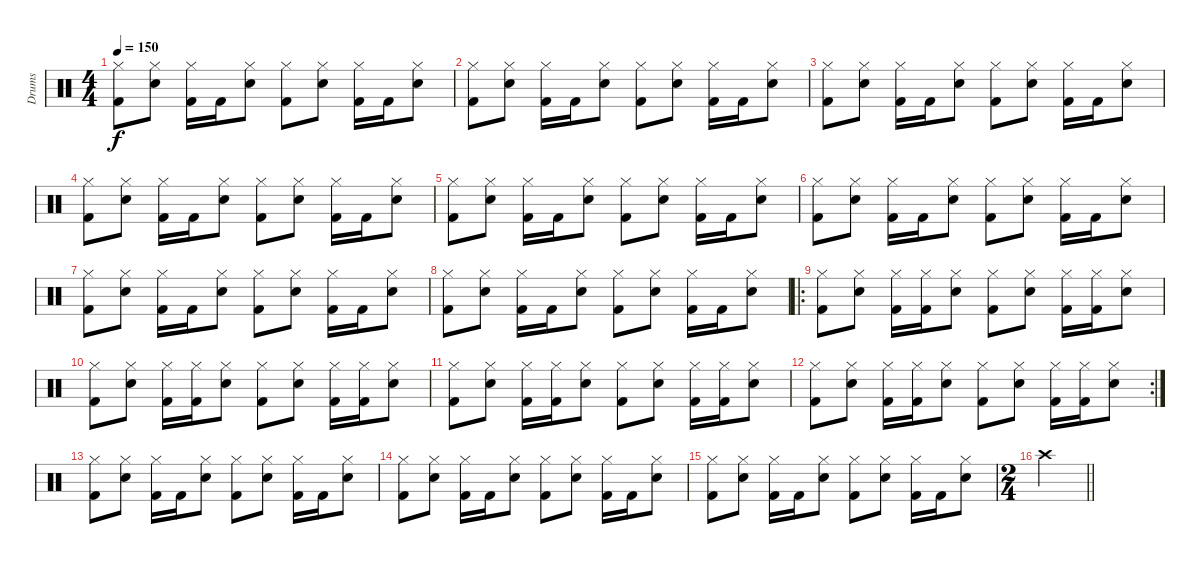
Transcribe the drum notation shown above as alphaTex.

\track ("Drums" "Drums") {instrument percussion}
\staff {score}
\articulation defaults
\ts (4 4)
\tempo 150
\clef neutral
\ks c
("Hi-Hat (closed)" "Kick (hit) 2").8{dy f} ("Hi-Hat (closed)" "Snare (hit) 2").8 ("Hi-Hat (closed)" "Kick (hit) 2").16 "Kick (hit) 2".16 ("Hi-Hat (closed)" "Snare (hit) 2").8 ("Hi-Hat (closed)" "Kick (hit) 2").8 ("Hi-Hat (closed)" "Snare (hit) 2").8 ("Hi-Hat (closed)" "Kick (hit) 2").16 "Kick (hit) 2".16 ("Hi-Hat (closed)" "Snare (hit) 2").8 |
("Hi-Hat (closed)" "Kick (hit) 2").8 ("Hi-Hat (closed)" "Snare (hit) 2").8 ("Hi-Hat (closed)" "Kick (hit) 2").16 "Kick (hit) 2".16 ("Hi-Hat (closed)" "Snare (hit) 2").8 ("Hi-Hat (closed)" "Kick (hit) 2").8 ("Hi-Hat (closed)" "Snare (hit) 2").8 ("Hi-Hat (closed)" "Kick (hit) 2").16 "Kick (hit) 2".16 ("Hi-Hat (closed)" "Snare (hit) 2").8 |
("Hi-Hat (closed)" "Kick (hit) 2").8 ("Hi-Hat (closed)" "Snare (hit) 2").8 ("Hi-Hat (closed)" "Kick (hit) 2").16 "Kick (hit) 2".16 ("Hi-Hat (closed)" "Snare (hit) 2").8 ("Hi-Hat (closed)" "Kick (hit) 2").8 ("Hi-Hat (closed)" "Snare (hit) 2").8 ("Hi-Hat (closed)" "Kick (hit) 2").16 "Kick (hit) 2".16 ("Hi-Hat (closed)" "Snare (hit) 2").8 |
("Hi-Hat (closed)" "Kick (hit) 2").8 ("Hi-Hat (closed)" "Snare (hit) 2").8 ("Hi-Hat (closed)" "Kick (hit) 2").16 "Kick (hit) 2".16 ("Hi-Hat (closed)" "Snare (hit) 2").8 ("Hi-Hat (closed)" "Kick (hit) 2").8 ("Hi-Hat (closed)" "Snare (hit) 2").8 ("Hi-Hat (closed)" "Kick (hit) 2").16 "Kick (hit) 2".16 ("Hi-Hat (closed)" "Snare (hit) 2").8 |
("Hi-Hat (closed)" "Kick (hit) 2").8 ("Hi-Hat (closed)" "Snare (hit) 2").8 ("Hi-Hat (closed)" "Kick (hit) 2").16 "Kick (hit) 2".16 ("Hi-Hat (closed)" "Snare (hit) 2").8 ("Hi-Hat (closed)" "Kick (hit) 2").8 ("Hi-Hat (closed)" "Snare (hit) 2").8 ("Hi-Hat (closed)" "Kick (hit) 2").16 "Kick (hit) 2".16 ("Hi-Hat (closed)" "Snare (hit) 2").8 |
("Hi-Hat (closed)" "Kick (hit) 2").8 ("Hi-Hat (closed)" "Snare (hit) 2").8 ("Hi-Hat (closed)" "Kick (hit) 2").16 "Kick (hit) 2".16 ("Hi-Hat (closed)" "Snare (hit) 2").8 ("Hi-Hat (closed)" "Kick (hit) 2").8 ("Hi-Hat (closed)" "Snare (hit) 2").8 ("Hi-Hat (closed)" "Kick (hit) 2").16 "Kick (hit) 2".16 ("Hi-Hat (closed)" "Snare (hit) 2").8 |
("Hi-Hat (closed)" "Kick (hit) 2").8 ("Hi-Hat (closed)" "Snare (hit) 2").8 ("Hi-Hat (closed)" "Kick (hit) 2").16 "Kick (hit) 2".16 ("Hi-Hat (closed)" "Snare (hit) 2").8 ("Hi-Hat (closed)" "Kick (hit) 2").8 ("Hi-Hat (closed)" "Snare (hit) 2").8 ("Hi-Hat (closed)" "Kick (hit) 2").16 "Kick (hit) 2".16 ("Hi-Hat (closed)" "Snare (hit) 2").8 |
("Hi-Hat (closed)" "Kick (hit) 2").8 ("Hi-Hat (closed)" "Snare (hit) 2").8 ("Hi-Hat (closed)" "Kick (hit) 2").16 "Kick (hit) 2".16 ("Hi-Hat (closed)" "Snare (hit) 2").8 ("Hi-Hat (closed)" "Kick (hit) 2").8 ("Hi-Hat (closed)" "Snare (hit) 2").8 ("Hi-Hat (closed)" "Kick (hit) 2").16 "Kick (hit) 2".16 ("Hi-Hat (closed)" "Snare (hit) 2").8 |
\ro
("Hi-Hat (closed)" "Kick (hit) 2").8 ("Hi-Hat (closed)" "Snare (hit) 2").8 ("Hi-Hat (closed)" "Kick (hit) 2").16 ("Hi-Hat (closed)" "Kick (hit) 2").16 ("Hi-Hat (closed)" "Snare (hit) 2").8 ("Hi-Hat (closed)" "Kick (hit) 2").8 ("Hi-Hat (closed)" "Snare (hit) 2").8 ("Hi-Hat (closed)" "Kick (hit) 2").16 ("Hi-Hat (closed)" "Kick (hit) 2").16 ("Hi-Hat (closed)" "Snare (hit) 2").8 |
("Hi-Hat (closed)" "Kick (hit) 2").8 ("Hi-Hat (closed)" "Snare (hit) 2").8 ("Hi-Hat (closed)" "Kick (hit) 2").16 ("Hi-Hat (closed)" "Kick (hit) 2").16 ("Hi-Hat (closed)" "Snare (hit) 2").8 ("Hi-Hat (closed)" "Kick (hit) 2").8 ("Hi-Hat (closed)" "Snare (hit) 2").8 ("Hi-Hat (closed)" "Kick (hit) 2").16 ("Hi-Hat (closed)" "Kick (hit) 2").16 ("Hi-Hat (closed)" "Snare (hit) 2").8 |
("Hi-Hat (closed)" "Kick (hit) 2").8 ("Hi-Hat (closed)" "Snare (hit) 2").8 ("Hi-Hat (closed)" "Kick (hit) 2").16 ("Hi-Hat (closed)" "Kick (hit) 2").16 ("Hi-Hat (closed)" "Snare (hit) 2").8 ("Hi-Hat (closed)" "Kick (hit) 2").8 ("Hi-Hat (closed)" "Snare (hit) 2").8 ("Hi-Hat (closed)" "Kick (hit) 2").16 ("Hi-Hat (closed)" "Kick (hit) 2").16 ("Hi-Hat (closed)" "Snare (hit) 2").8 |
\rc 2
("Hi-Hat (closed)" "Kick (hit) 2").8 ("Hi-Hat (closed)" "Snare (hit) 2").8 ("Hi-Hat (closed)" "Kick (hit) 2").16 ("Hi-Hat (closed)" "Kick (hit) 2").16 ("Hi-Hat (closed)" "Snare (hit) 2").8 ("Hi-Hat (closed)" "Kick (hit) 2").8 ("Hi-Hat (closed)" "Snare (hit) 2").8 ("Hi-Hat (closed)" "Kick (hit) 2").16 ("Hi-Hat (closed)" "Kick (hit) 2").16 ("Hi-Hat (closed)" "Snare (hit) 2").8 |
("Hi-Hat (closed)" "Kick (hit) 2").8 ("Hi-Hat (closed)" "Snare (hit) 2").8 ("Hi-Hat (closed)" "Kick (hit) 2").16 "Kick (hit) 2".16 ("Hi-Hat (closed)" "Snare (hit) 2").8 ("Hi-Hat (closed)" "Kick (hit) 2").8 ("Hi-Hat (closed)" "Snare (hit) 2").8 ("Hi-Hat (closed)" "Kick (hit) 2").16 "Kick (hit) 2".16 ("Hi-Hat (closed)" "Snare (hit) 2").8 |
("Hi-Hat (closed)" "Kick (hit) 2").8 ("Hi-Hat (closed)" "Snare (hit) 2").8 ("Hi-Hat (closed)" "Kick (hit) 2").16 "Kick (hit) 2".16 ("Hi-Hat (closed)" "Snare (hit) 2").8 ("Hi-Hat (closed)" "Kick (hit) 2").8 ("Hi-Hat (closed)" "Snare (hit) 2").8 ("Hi-Hat (closed)" "Kick (hit) 2").16 "Kick (hit) 2".16 ("Hi-Hat (closed)" "Snare (hit) 2").8 |
("Hi-Hat (closed)" "Kick (hit) 2").8 ("Hi-Hat (closed)" "Snare (hit) 2").8 ("Hi-Hat (closed)" "Kick (hit) 2").16 "Kick (hit) 2".16 ("Hi-Hat (closed)" "Snare (hit) 2").8 ("Hi-Hat (closed)" "Kick (hit) 2").8 ("Hi-Hat (closed)" "Snare (hit) 2").8 ("Hi-Hat (closed)" "Kick (hit) 2").16 "Kick (hit) 2".16 ("Hi-Hat (closed)" "Snare (hit) 2").8 |
\ts (2 4)
\barLineRight lightlight "Crash high (hit)".2
